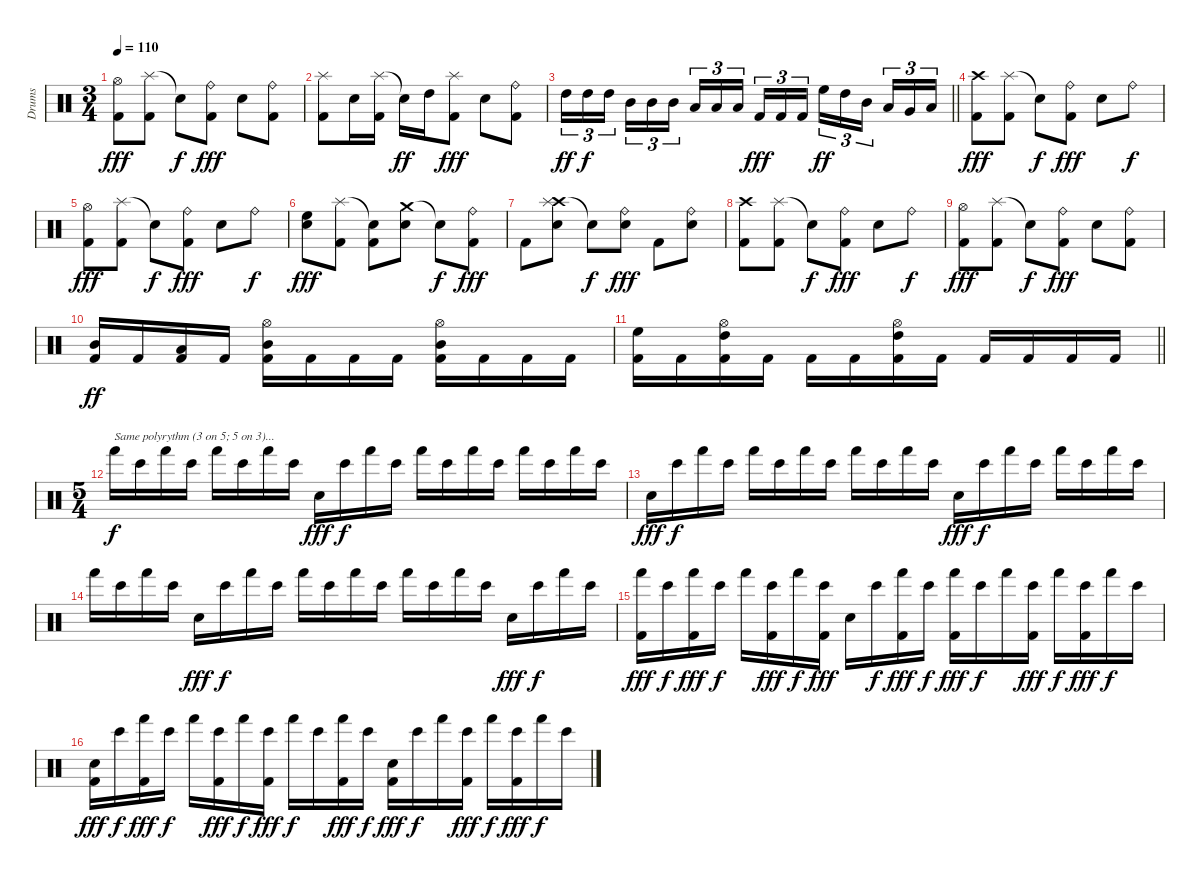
\track ("Drums" "Drums") {instrument percussion}
\staff {score}
\articulation defaults
\ts (3 4)
\tempo 110
\clef neutral
\ks c
("Hi-Hat (open)" "Kick (hit) 2").8{dy fff} ("Splash (hit)" "Kick (hit) 2").8 "Snare (hit)"{t}.8{dy f} ("Ride (bell)" "Kick (hit) 2").8{dy fff} "Snare (hit) 2".8 ("Ride (bell)" "Kick (hit) 2").8 |
("Splash (hit)" "Kick (hit) 2").8 "Snare (hit) 2".16 ("Splash (hit)" "Kick (hit) 2").16 "Snare (hit)"{t}.16{dy ff} "High Tom (hit)".16 ("Splash (hit)" "Kick (hit) 2").8{dy fff} "Snare (hit) 2".8 ("Ride (bell)" "Kick (hit) 2").8 |
\barLineRight lightlight "High Tom (hit)".16{tu (3 2) dy ff} "High Tom (hit)".16{tu (3 2) dy f} "High Tom (hit)".16{tu (3 2) beam splitsecondary} "Mid Tom (hit)".16{tu (3 2)} "Mid Tom (hit)".16{tu (3 2)} "Mid Tom (hit)".16{tu (3 2)} "Low Tom (hit)".16{tu (3 2)} "Low Tom (hit)".16{tu (3 2)} "Low Tom (hit)".16{tu (3 2) beam splitsecondary} "Kick (hit) 2".16{tu (3 2) dy fff} "Kick (hit) 2".16{tu (3 2)} "Kick (hit) 2".16{tu (3 2)} "High Floor Tom (hit)".16{tu (3 2) dy ff} "High Tom (hit)".16{tu (3 2)} "Mid Tom (hit)".16{tu (3 2) beam splitsecondary} "Low Tom (hit)".16{tu (3 2)} "Very Low Tom (hit)".16{tu (3 2)} "Low Floor Tom (hit)".16{tu (3 2)}
|
\section ("" "")
("Crash high (hit)" "Kick (hit) 2").8{dy fff} ("Splash (hit)" "Kick (hit) 2").8 "Snare (hit)"{t}.8{dy f} ("Ride (bell)" "Kick (hit) 2").8{dy fff} "Snare (hit) 2".8 "Ride (bell)".8{dy f} |
("Hi-Hat (open)" "Kick (hit) 2").8{dy fff} ("Splash (hit)" "Kick (hit) 2").8 "Snare (hit)"{t}.8{dy f} ("Ride (bell)" "Kick (hit) 2").8{dy fff} "Snare (hit) 2".8 "Ride (bell)".8{dy f} |
("High Floor Tom (hit)" "Snare (hit) 2").8{dy fff} ("Splash (hit)" "Kick (hit) 2").8 ("Snare (hit)"{t} "Kick (hit) 2").8 ("Crash medium (hit)" "Snare (hit) 2").8 "Snare (hit)"{t}.8{dy f} ("Ride (bell)" "Kick (hit) 2").8{dy fff} |
"Kick (hit) 2".8 ("Crash high (hit)" "Splash (hit)" "Snare (hit) 2").8 "Snare (hit)"{t}.8{dy f} ("Ride (bell)" "Snare (hit) 2").8{dy fff} "Kick (hit) 2".8 ("Ride (bell)" "Snare (hit) 2").8 |
("Crash high (hit)" "Kick (hit) 2").8 ("Splash (hit)" "Kick (hit) 2").8 "Snare (hit)"{t}.8{dy f} ("Ride (bell)" "Kick (hit) 2").8{dy fff} "Snare (hit) 2".8 "Ride (bell)".8{dy f} |
("Hi-Hat (open)" "Kick (hit) 2").8{dy fff} ("Splash (hit)" "Kick (hit) 2").8 "Snare (hit)"{t}.8{dy f} ("Ride (bell)" "Kick (hit) 2").8{dy fff} "Snare (hit) 2".8 ("Ride (bell)" "Kick (hit) 2").8 |
("Mid Tom (hit)" "Kick (hit) 2").16{dy ff} "Kick (hit) 2".16 ("Low Tom (hit)" "Kick (hit) 2").16 "Kick (hit) 2".16 ("Hi-Hat (open)" "Mid Tom (hit)" "Kick (hit) 2").16 "Kick (hit) 2".16 "Kick (hit) 2".16 "Kick (hit) 2".16 ("Hi-Hat (open)" "Mid Tom (hit)" "Kick (hit) 2").16 "Kick (hit) 2".16 "Kick (hit) 2".16 "Kick (hit) 2".16 |
\barLineRight lightlight
("High Floor Tom (hit)" "Kick (hit) 2").16 "Kick (hit) 2".16 ("Hi-Hat (open)" "High Tom (hit)" "Kick (hit) 2").16 "Kick (hit) 2".16 "Kick (hit) 2".16 "Kick (hit) 2".16 ("Hi-Hat (open)" "High Tom (hit)" "Kick (hit) 2").16 "Kick (hit) 2".16 "Kick (hit) 2".16 "Kick (hit) 2".16 "Kick (hit) 2".16 "Kick (hit) 2".16 |
\ts (5 4)
\section ("" "")
"Hand (hit)".16{txt "Same polyrythm (3 on 5; 5 on 3)..." dy f} "Bongo High (hit)".16 "Hand (hit)".16 "Bongo High (hit)".16 "Hand (hit)".16 "Bongo High (hit)".16 "Hand (hit)".16 "Bongo High (hit)".16 "Snare (hit) 2".16{dy fff} "Bongo High (hit)".16{dy f} "Hand (hit)".16 "Bongo High (hit)".16 "Hand (hit)".16 "Bongo High (hit)".16 "Hand (hit)".16 "Bongo High (hit)".16 "Hand (hit)".16 "Bongo High (hit)".16 "Hand (hit)".16 "Bongo High (hit)".16 |
"Snare (hit) 2".16{dy fff} "Bongo High (hit)".16{dy f} "Hand (hit)".16 "Bongo High (hit)".16 "Hand (hit)".16 "Bongo High (hit)".16 "Hand (hit)".16 "Bongo High (hit)".16 "Hand (hit)".16 "Bongo High (hit)".16 "Hand (hit)".16 "Bongo High (hit)".16 "Snare (hit) 2".16{dy fff} "Bongo High (hit)".16{dy f} "Hand (hit)".16 "Bongo High (hit)".16 "Hand (hit)".16 "Bongo High (hit)".16 "Hand (hit)".16 "Bongo High (hit)".16 |
"Hand (hit)".16 "Bongo High (hit)".16 "Hand (hit)".16 "Bongo High (hit)".16 "Snare (hit) 2".16{dy fff} "Bongo High (hit)".16{dy f} "Hand (hit)".16 "Bongo High (hit)".16 "Hand (hit)".16 "Bongo High (hit)".16 "Hand (hit)".16 "Bongo High (hit)".16 "Hand (hit)".16 "Bongo High (hit)".16 "Hand (hit)".16 "Bongo High (hit)".16 "Snare (hit) 2".16{dy fff} "Bongo High (hit)".16{dy f} "Hand (hit)".16 "Bongo High (hit)".16 |
("Hand (hit)" "Kick (hit) 2").16{dy fff} "Bongo High (hit)".16{dy f} ("Hand (hit)" "Kick (hit) 2").16{dy fff} "Bongo High (hit)".16{dy f} "Hand (hit)".16 ("Bongo High (hit)" "Kick (hit) 2").16{dy fff} "Hand (hit)".16{dy f} ("Bongo High (hit)" "Kick (hit) 2").16{dy fff} "Snare (hit) 2".16 "Bongo High (hit)".16{dy f} ("Hand (hit)" "Kick (hit) 2").16{dy fff} "Bongo High (hit)".16{dy f} ("Hand (hit)" "Kick (hit) 2").16{dy fff} "Bongo High (hit)".16{dy f} "Hand (hit)".16 ("Bongo High (hit)" "Kick (hit) 2").16{dy fff} "Hand (hit)".16{dy f} ("Bongo High (hit)" "Kick (hit) 2").16{dy fff} "Hand (hit)".16{dy f} "Bongo High (hit)".16 |
("Snare (hit) 2" "Kick (hit) 2").16{dy fff} "Bongo High (hit)".16{dy f} ("Hand (hit)" "Kick (hit) 2").16{dy fff} "Bongo High (hit)".16{dy f} "Hand (hit)".16 ("Bongo High (hit)" "Kick (hit) 2").16{dy fff} "Hand (hit)".16{dy f} ("Bongo High (hit)" "Kick (hit) 2").16{dy fff} "Hand (hit)".16{dy f} "Bongo High (hit)".16 ("Hand (hit)" "Kick (hit) 2").16{dy fff} "Bongo High (hit)".16{dy f} ("Snare (hit) 2" "Kick (hit) 2").16{dy fff} "Bongo High (hit)".16{dy f} "Hand (hit)".16 ("Bongo High (hit)" "Kick (hit) 2").16{dy fff} "Hand (hit)".16{dy f} ("Bongo High (hit)" "Kick (hit) 2").16{dy fff} "Hand (hit)".16{dy f} "Bongo High (hit)".16
